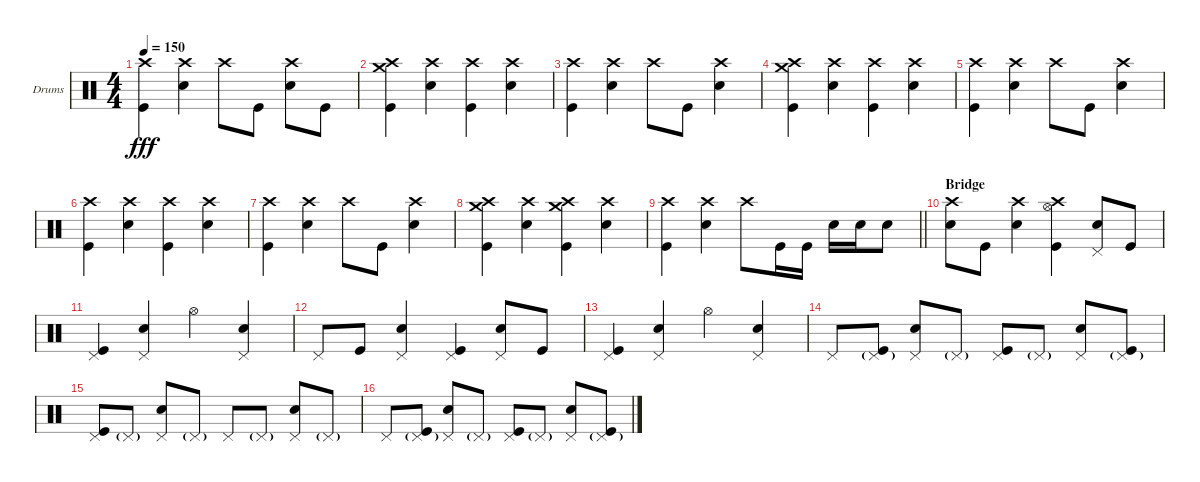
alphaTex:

\bracketExtendMode groupsimilarinstruments
\firstSystemTrackNameOrientation horizontal
\otherSystemsTrackNameOrientation horizontal
\track ("Drumkit" "Drums") {instrument percussion}
\staff {score}
\articulation defaults
\ts (4 4)
\tempo 150
\clef neutral
\ks c
("Crash high (hit)" "Kick (hit)").4{dy fff} ("Crash high (hit)" "Snare (hit) 2").4 "Crash high (hit)".8 "Kick (hit)".8 ("Crash high (hit)" "Snare (hit) 2").8 "Kick (hit)".8 |
("Crash high (hit)" "Crash medium (hit)" "Kick (hit)").4 ("Crash high (hit)" "Snare (hit) 2").4 ("Crash high (hit)" "Kick (hit)").4 ("Crash high (hit)" "Snare (hit) 2").4 |
("Crash high (hit)" "Kick (hit)").4 ("Crash high (hit)" "Snare (hit) 2").4 "Crash high (hit)".8 "Kick (hit)".8 ("Crash high (hit)" "Snare (hit) 2").4 |
("Crash high (hit)" "Crash medium (hit)" "Kick (hit)").4 ("Crash high (hit)" "Snare (hit) 2").4 ("Crash high (hit)" "Kick (hit)").4 ("Crash high (hit)" "Snare (hit) 2").4 |
("Crash high (hit)" "Kick (hit)").4 ("Crash high (hit)" "Snare (hit) 2").4 "Crash high (hit)".8 "Kick (hit)".8 ("Crash high (hit)" "Snare (hit) 2").4 |
("Crash high (hit)" "Kick (hit)").4 ("Crash high (hit)" "Snare (hit) 2").4 ("Crash high (hit)" "Kick (hit)").4 ("Crash high (hit)" "Snare (hit) 2").4 |
("Crash high (hit)" "Kick (hit)").4 ("Crash high (hit)" "Snare (hit) 2").4 "Crash high (hit)".8 "Kick (hit)".8 ("Crash high (hit)" "Snare (hit) 2").4 |
("Crash high (hit)" "Crash medium (hit)" "Kick (hit)").4 ("Crash high (hit)" "Snare (hit) 2").4 ("Crash high (hit)" "Crash medium (hit)" "Kick (hit)").4 ("Crash high (hit)" "Snare (hit) 2").4 |
\barLineRight lightlight
("Crash high (hit)" "Kick (hit)").4 ("Crash high (hit)" "Snare (hit) 2").4 "Crash high (hit)".8 "Kick (hit)".16 "Kick (hit)".16 "Snare (hit) 2".16 "Snare (hit) 2".16 "Snare (hit) 2".8 |
\section ("" "Bridge")
("Crash high (hit)" "Snare (hit) 2").8 "Kick (hit)".8 ("Crash high (hit)" "Snare (hit) 2").4 ("Crash high (hit)" "Hi-Hat (open)" "Kick (hit)").4 ("Pedal Hi-Hat (hit)" "Snare (hit) 2").8 "Kick (hit)".8 |
("Pedal Hi-Hat (hit)" "Kick (hit)").4 ("Pedal Hi-Hat (hit)" "Snare (hit) 2").4 "Hi-Hat (open)".4 ("Pedal Hi-Hat (hit)" "Snare (hit) 2").4 |
"Pedal Hi-Hat (hit)".8 "Kick (hit)".8 ("Pedal Hi-Hat (hit)" "Snare (hit) 2").4 ("Pedal Hi-Hat (hit)" "Kick (hit)").4 ("Pedal Hi-Hat (hit)" "Snare (hit) 2").8 "Kick (hit)".8 |
("Pedal Hi-Hat (hit)" "Kick (hit)").4 ("Pedal Hi-Hat (hit)" "Snare (hit) 2").4 "Hi-Hat (open)".4 ("Pedal Hi-Hat (hit)" "Snare (hit) 2").4 |
"Pedal Hi-Hat (hit)".8 ("Pedal Hi-Hat (hit)"{g} "Kick (hit)").8 ("Pedal Hi-Hat (hit)" "Snare (hit) 2").8 "Pedal Hi-Hat (hit)"{g}.8 ("Pedal Hi-Hat (hit)" "Kick (hit)").8 "Pedal Hi-Hat (hit)"{g}.8 ("Pedal Hi-Hat (hit)" "Snare (hit) 2").8 ("Pedal Hi-Hat (hit)"{g} "Kick (hit)").8 |
("Pedal Hi-Hat (hit)" "Kick (hit)").8 "Pedal Hi-Hat (hit)"{g}.8 ("Pedal Hi-Hat (hit)" "Snare (hit) 2").8 "Pedal Hi-Hat (hit)"{g}.8 "Pedal Hi-Hat (hit)".8 "Pedal Hi-Hat (hit)"{g}.8 ("Pedal Hi-Hat (hit)" "Snare (hit) 2").8 "Pedal Hi-Hat (hit)"{g}.8 |
"Pedal Hi-Hat (hit)".8 ("Pedal Hi-Hat (hit)"{g} "Kick (hit)").8 ("Pedal Hi-Hat (hit)" "Snare (hit) 2").8 "Pedal Hi-Hat (hit)"{g}.8 ("Pedal Hi-Hat (hit)" "Kick (hit)").8 "Pedal Hi-Hat (hit)"{g}.8 ("Pedal Hi-Hat (hit)" "Snare (hit) 2").8 ("Pedal Hi-Hat (hit)"{g} "Kick (hit)").8
